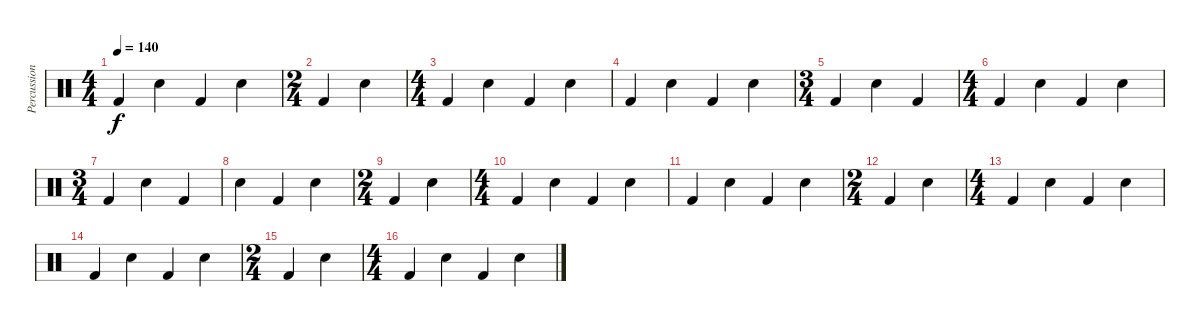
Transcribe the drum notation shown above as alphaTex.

\track ("Percussion" "Percussion") {instrument percussion}
\staff {score}
\articulation defaults
\ts (4 4)
\tempo 140
\clef neutral
\ks c "Kick (hit) 2".4{dy f} "Snare (hit) 2".4 "Kick (hit) 2".4 "Snare (hit) 2".4
|
\ts (2 4)
"Kick (hit) 2".4 "Snare (hit) 2".4 |
\ts (4 4)
"Kick (hit) 2".4 "Snare (hit) 2".4 "Kick (hit) 2".4 "Snare (hit) 2".4 |
"Kick (hit) 2".4 "Snare (hit) 2".4 "Kick (hit) 2".4 "Snare (hit) 2".4 |
\ts (3 4)
"Kick (hit) 2".4 "Snare (hit) 2".4 "Kick (hit) 2".4 |
\ts (4 4)
"Kick (hit) 2".4 "Snare (hit) 2".4 "Kick (hit) 2".4 "Snare (hit) 2".4 |
\ts (3 4)
"Kick (hit) 2".4 "Snare (hit) 2".4 "Kick (hit) 2".4 |
"Snare (hit) 2".4 "Kick (hit) 2".4 "Snare (hit) 2".4 |
\ts (2 4)
"Kick (hit) 2".4 "Snare (hit) 2".4 |
\ts (4 4)
"Kick (hit) 2".4 "Snare (hit) 2".4 "Kick (hit) 2".4 "Snare (hit) 2".4 |
"Kick (hit) 2".4 "Snare (hit) 2".4 "Kick (hit) 2".4 "Snare (hit) 2".4 |
\ts (2 4)
"Kick (hit) 2".4 "Snare (hit) 2".4 |
\ts (4 4)
"Kick (hit) 2".4 "Snare (hit) 2".4 "Kick (hit) 2".4 "Snare (hit) 2".4 |
"Kick (hit) 2".4 "Snare (hit) 2".4 "Kick (hit) 2".4 "Snare (hit) 2".4 |
\ts (2 4)
"Kick (hit) 2".4 "Snare (hit) 2".4 |
\ts (4 4)
"Kick (hit) 2".4 "Snare (hit) 2".4 "Kick (hit) 2".4 "Snare (hit) 2".4
